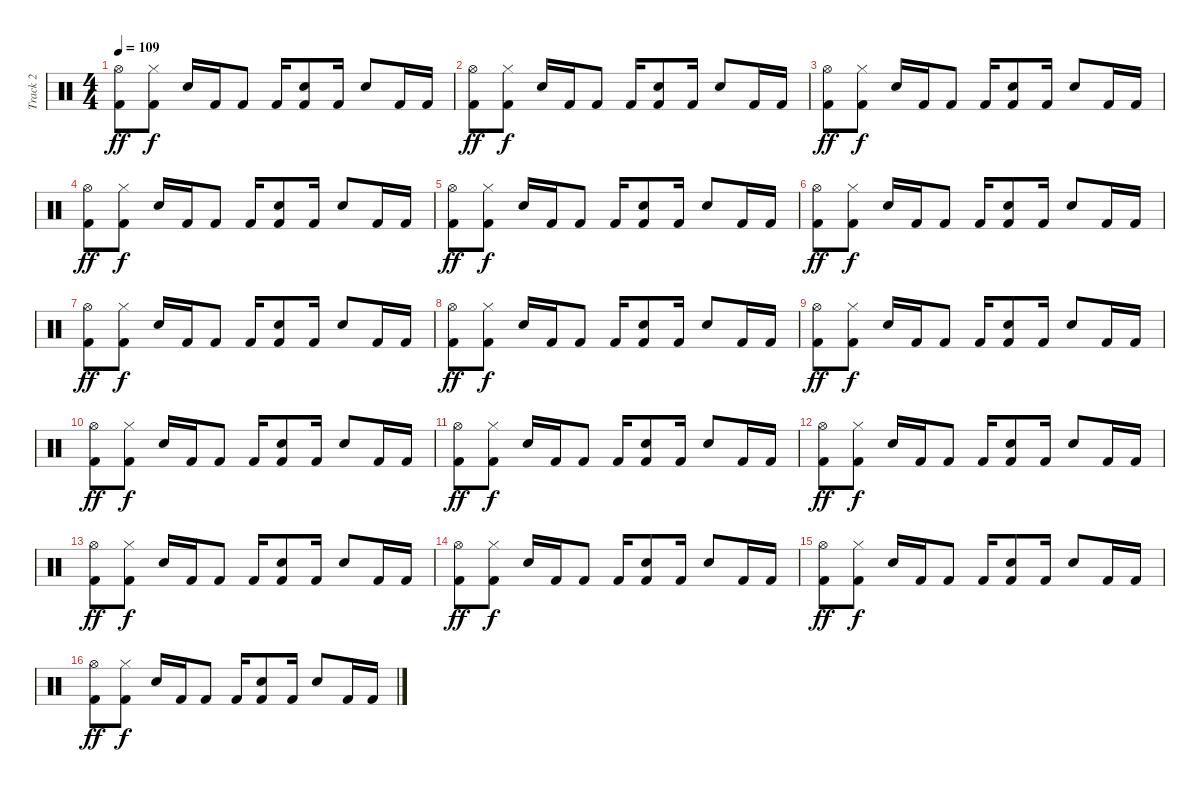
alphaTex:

\track ("Track 2" "Track 2") {instrument percussion}
\staff {score}
\articulation defaults
\ts (4 4)
\tempo 109
\clef neutral
\ks c
("Hi-Hat (open)" "Kick (hit) 2").8{dy ff} ("Hi-Hat (closed)" "Kick (hit) 2").8{dy f} "Electric Snare (hit)".16 "Kick (hit) 2".16 "Kick (hit) 2".8 "Kick (hit) 2".16 ("Electric Snare (hit)" "Kick (hit) 2").8 "Kick (hit) 2".16 "Electric Snare (hit)".8 "Kick (hit) 2".16 "Kick (hit) 2".16 |
("Hi-Hat (open)" "Kick (hit) 2").8{dy ff} ("Hi-Hat (closed)" "Kick (hit) 2").8{dy f} "Electric Snare (hit)".16 "Kick (hit) 2".16 "Kick (hit) 2".8 "Kick (hit) 2".16 ("Electric Snare (hit)" "Kick (hit) 2").8 "Kick (hit) 2".16 "Electric Snare (hit)".8 "Kick (hit) 2".16 "Kick (hit) 2".16 |
("Hi-Hat (open)" "Kick (hit) 2").8{dy ff} ("Hi-Hat (closed)" "Kick (hit) 2").8{dy f} "Electric Snare (hit)".16 "Kick (hit) 2".16 "Kick (hit) 2".8 "Kick (hit) 2".16 ("Electric Snare (hit)" "Kick (hit) 2").8 "Kick (hit) 2".16 "Electric Snare (hit)".8 "Kick (hit) 2".16 "Kick (hit) 2".16 |
("Hi-Hat (open)" "Kick (hit) 2").8{dy ff} ("Hi-Hat (closed)" "Kick (hit) 2").8{dy f} "Electric Snare (hit)".16 "Kick (hit) 2".16 "Kick (hit) 2".8 "Kick (hit) 2".16 ("Electric Snare (hit)" "Kick (hit) 2").8 "Kick (hit) 2".16 "Electric Snare (hit)".8 "Kick (hit) 2".16 "Kick (hit) 2".16 |
("Hi-Hat (open)" "Kick (hit) 2").8{dy ff} ("Hi-Hat (closed)" "Kick (hit) 2").8{dy f} "Electric Snare (hit)".16 "Kick (hit) 2".16 "Kick (hit) 2".8 "Kick (hit) 2".16 ("Electric Snare (hit)" "Kick (hit) 2").8 "Kick (hit) 2".16 "Electric Snare (hit)".8 "Kick (hit) 2".16 "Kick (hit) 2".16 |
("Hi-Hat (open)" "Kick (hit) 2").8{dy ff} ("Hi-Hat (closed)" "Kick (hit) 2").8{dy f} "Electric Snare (hit)".16 "Kick (hit) 2".16 "Kick (hit) 2".8 "Kick (hit) 2".16 ("Electric Snare (hit)" "Kick (hit) 2").8 "Kick (hit) 2".16 "Electric Snare (hit)".8 "Kick (hit) 2".16 "Kick (hit) 2".16 |
("Hi-Hat (open)" "Kick (hit) 2").8{dy ff} ("Hi-Hat (closed)" "Kick (hit) 2").8{dy f} "Electric Snare (hit)".16 "Kick (hit) 2".16 "Kick (hit) 2".8 "Kick (hit) 2".16 ("Electric Snare (hit)" "Kick (hit) 2").8 "Kick (hit) 2".16 "Electric Snare (hit)".8 "Kick (hit) 2".16 "Kick (hit) 2".16 |
("Hi-Hat (open)" "Kick (hit) 2").8{dy ff} ("Hi-Hat (closed)" "Kick (hit) 2").8{dy f} "Electric Snare (hit)".16 "Kick (hit) 2".16 "Kick (hit) 2".8 "Kick (hit) 2".16 ("Electric Snare (hit)" "Kick (hit) 2").8 "Kick (hit) 2".16 "Electric Snare (hit)".8 "Kick (hit) 2".16 "Kick (hit) 2".16 |
("Hi-Hat (open)" "Kick (hit) 2").8{dy ff} ("Hi-Hat (closed)" "Kick (hit) 2").8{dy f} "Electric Snare (hit)".16 "Kick (hit) 2".16 "Kick (hit) 2".8 "Kick (hit) 2".16 ("Electric Snare (hit)" "Kick (hit) 2").8 "Kick (hit) 2".16 "Electric Snare (hit)".8 "Kick (hit) 2".16 "Kick (hit) 2".16 |
("Hi-Hat (open)" "Kick (hit) 2").8{dy ff} ("Hi-Hat (closed)" "Kick (hit) 2").8{dy f} "Electric Snare (hit)".16 "Kick (hit) 2".16 "Kick (hit) 2".8 "Kick (hit) 2".16 ("Electric Snare (hit)" "Kick (hit) 2").8 "Kick (hit) 2".16 "Electric Snare (hit)".8 "Kick (hit) 2".16 "Kick (hit) 2".16 |
("Hi-Hat (open)" "Kick (hit) 2").8{dy ff} ("Hi-Hat (closed)" "Kick (hit) 2").8{dy f} "Electric Snare (hit)".16 "Kick (hit) 2".16 "Kick (hit) 2".8 "Kick (hit) 2".16 ("Electric Snare (hit)" "Kick (hit) 2").8 "Kick (hit) 2".16 "Electric Snare (hit)".8 "Kick (hit) 2".16 "Kick (hit) 2".16 |
("Hi-Hat (open)" "Kick (hit) 2").8{dy ff} ("Hi-Hat (closed)" "Kick (hit) 2").8{dy f} "Electric Snare (hit)".16 "Kick (hit) 2".16 "Kick (hit) 2".8 "Kick (hit) 2".16 ("Electric Snare (hit)" "Kick (hit) 2").8 "Kick (hit) 2".16 "Electric Snare (hit)".8 "Kick (hit) 2".16 "Kick (hit) 2".16 |
("Hi-Hat (open)" "Kick (hit) 2").8{dy ff} ("Hi-Hat (closed)" "Kick (hit) 2").8{dy f} "Electric Snare (hit)".16 "Kick (hit) 2".16 "Kick (hit) 2".8 "Kick (hit) 2".16 ("Electric Snare (hit)" "Kick (hit) 2").8 "Kick (hit) 2".16 "Electric Snare (hit)".8 "Kick (hit) 2".16 "Kick (hit) 2".16 |
("Hi-Hat (open)" "Kick (hit) 2").8{dy ff} ("Hi-Hat (closed)" "Kick (hit) 2").8{dy f} "Electric Snare (hit)".16 "Kick (hit) 2".16 "Kick (hit) 2".8 "Kick (hit) 2".16 ("Electric Snare (hit)" "Kick (hit) 2").8 "Kick (hit) 2".16 "Electric Snare (hit)".8 "Kick (hit) 2".16 "Kick (hit) 2".16 |
("Hi-Hat (open)" "Kick (hit) 2").8{dy ff} ("Hi-Hat (closed)" "Kick (hit) 2").8{dy f} "Electric Snare (hit)".16 "Kick (hit) 2".16 "Kick (hit) 2".8 "Kick (hit) 2".16 ("Electric Snare (hit)" "Kick (hit) 2").8 "Kick (hit) 2".16 "Electric Snare (hit)".8 "Kick (hit) 2".16 "Kick (hit) 2".16 |
("Hi-Hat (open)" "Kick (hit) 2").8{dy ff} ("Hi-Hat (closed)" "Kick (hit) 2").8{dy f} "Electric Snare (hit)".16 "Kick (hit) 2".16 "Kick (hit) 2".8 "Kick (hit) 2".16 ("Electric Snare (hit)" "Kick (hit) 2").8 "Kick (hit) 2".16 "Electric Snare (hit)".8 "Kick (hit) 2".16 "Kick (hit) 2".16
